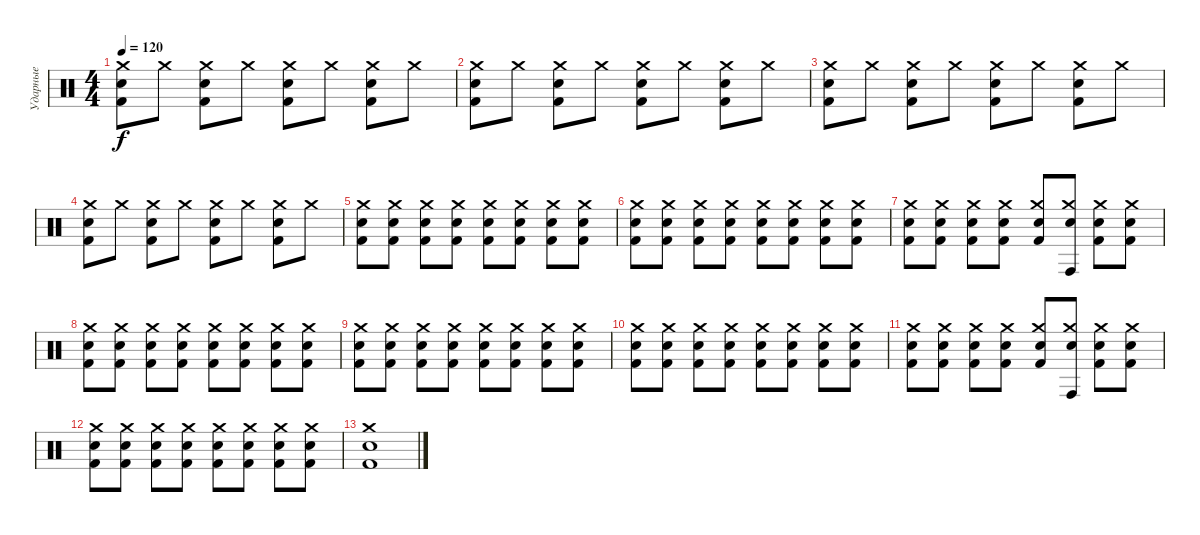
\track ("Ударные" "Ударные") {instrument percussion}
\staff {score}
\articulation defaults
\ts (4 4)
\tempo 120
\clef neutral
\ks c
("Kick (hit) 2" "Electric Snare (hit)" "Crash medium (hit)").8{dy f} "Crash medium (hit)".8 ("Kick (hit) 2" "Electric Snare (hit)" "Crash medium (hit)").8 "Crash medium (hit)".8 ("Kick (hit) 2" "Electric Snare (hit)" "Crash medium (hit)").8 "Crash medium (hit)".8 ("Kick (hit) 2" "Electric Snare (hit)" "Crash medium (hit)").8 "Crash medium (hit)".8 |
("Kick (hit) 2" "Electric Snare (hit)" "Crash medium (hit)").8 "Crash medium (hit)".8 ("Kick (hit) 2" "Electric Snare (hit)" "Crash medium (hit)").8 "Crash medium (hit)".8 ("Kick (hit) 2" "Electric Snare (hit)" "Crash medium (hit)").8 "Crash medium (hit)".8 ("Kick (hit) 2" "Electric Snare (hit)" "Crash medium (hit)").8 "Crash medium (hit)".8 |
("Kick (hit) 2" "Electric Snare (hit)" "Crash medium (hit)").8 "Crash medium (hit)".8 ("Kick (hit) 2" "Electric Snare (hit)" "Crash medium (hit)").8 "Crash medium (hit)".8 ("Kick (hit) 2" "Electric Snare (hit)" "Crash medium (hit)").8 "Crash medium (hit)".8 ("Kick (hit) 2" "Electric Snare (hit)" "Crash medium (hit)").8 "Crash medium (hit)".8 |
("Kick (hit) 2" "Electric Snare (hit)" "Crash medium (hit)").8 "Crash medium (hit)".8 ("Kick (hit) 2" "Electric Snare (hit)" "Crash medium (hit)").8 "Crash medium (hit)".8 ("Kick (hit) 2" "Electric Snare (hit)" "Crash medium (hit)").8 "Crash medium (hit)".8 ("Kick (hit) 2" "Electric Snare (hit)" "Crash medium (hit)").8 "Crash medium (hit)".8 |
("Kick (hit) 2" "Electric Snare (hit)" "Crash medium (hit)").8 ("Kick (hit) 2" "Electric Snare (hit)" "Crash medium (hit)").8 ("Kick (hit) 2" "Electric Snare (hit)" "Crash medium (hit)").8 ("Kick (hit) 2" "Electric Snare (hit)" "Crash medium (hit)").8 ("Kick (hit) 2" "Electric Snare (hit)" "Crash medium (hit)").8 ("Kick (hit) 2" "Electric Snare (hit)" "Crash medium (hit)").8 ("Kick (hit) 2" "Electric Snare (hit)" "Crash medium (hit)").8 ("Kick (hit) 2" "Electric Snare (hit)" "Crash medium (hit)").8 |
("Kick (hit) 2" "Electric Snare (hit)" "Crash medium (hit)").8 ("Kick (hit) 2" "Electric Snare (hit)" "Crash medium (hit)").8 ("Kick (hit) 2" "Electric Snare (hit)" "Crash medium (hit)").8 ("Kick (hit) 2" "Electric Snare (hit)" "Crash medium (hit)").8 ("Kick (hit) 2" "Electric Snare (hit)" "Crash medium (hit)").8 ("Kick (hit) 2" "Electric Snare (hit)" "Crash medium (hit)").8 ("Kick (hit) 2" "Electric Snare (hit)" "Crash medium (hit)").8 ("Kick (hit) 2" "Electric Snare (hit)" "Crash medium (hit)").8 |
("Kick (hit) 2" "Electric Snare (hit)" "Crash medium (hit)").8 ("Kick (hit) 2" "Electric Snare (hit)" "Crash medium (hit)").8 ("Kick (hit) 2" "Electric Snare (hit)" "Crash medium (hit)").8 ("Kick (hit) 2" "Electric Snare (hit)" "Crash medium (hit)").8 ("Kick (hit) 2" "Electric Snare (hit)" "Crash medium (hit)").8 ("Conga high (hit)" "Electric Snare (hit)" "Crash medium (hit)").8 ("Kick (hit) 2" "Electric Snare (hit)" "Crash medium (hit)").8 ("Kick (hit) 2" "Electric Snare (hit)" "Crash medium (hit)").8 |
("Kick (hit) 2" "Electric Snare (hit)" "Crash medium (hit)").8 ("Kick (hit) 2" "Electric Snare (hit)" "Crash medium (hit)").8 ("Kick (hit) 2" "Electric Snare (hit)" "Crash medium (hit)").8 ("Kick (hit) 2" "Electric Snare (hit)" "Crash medium (hit)").8 ("Kick (hit) 2" "Electric Snare (hit)" "Crash medium (hit)").8 ("Kick (hit) 2" "Electric Snare (hit)" "Crash medium (hit)").8 ("Kick (hit) 2" "Electric Snare (hit)" "Crash medium (hit)").8 ("Kick (hit) 2" "Electric Snare (hit)" "Crash medium (hit)").8 |
("Kick (hit) 2" "Electric Snare (hit)" "Crash medium (hit)").8 ("Kick (hit) 2" "Electric Snare (hit)" "Crash medium (hit)").8 ("Kick (hit) 2" "Electric Snare (hit)" "Crash medium (hit)").8 ("Kick (hit) 2" "Electric Snare (hit)" "Crash medium (hit)").8 ("Kick (hit) 2" "Electric Snare (hit)" "Crash medium (hit)").8 ("Kick (hit) 2" "Electric Snare (hit)" "Crash medium (hit)").8 ("Kick (hit) 2" "Electric Snare (hit)" "Crash medium (hit)").8 ("Kick (hit) 2" "Electric Snare (hit)" "Crash medium (hit)").8 |
("Kick (hit) 2" "Electric Snare (hit)" "Crash medium (hit)").8 ("Kick (hit) 2" "Electric Snare (hit)" "Crash medium (hit)").8 ("Kick (hit) 2" "Electric Snare (hit)" "Crash medium (hit)").8 ("Kick (hit) 2" "Electric Snare (hit)" "Crash medium (hit)").8 ("Kick (hit) 2" "Electric Snare (hit)" "Crash medium (hit)").8 ("Kick (hit) 2" "Electric Snare (hit)" "Crash medium (hit)").8 ("Kick (hit) 2" "Electric Snare (hit)" "Crash medium (hit)").8 ("Kick (hit) 2" "Electric Snare (hit)" "Crash medium (hit)").8 |
("Kick (hit) 2" "Electric Snare (hit)" "Crash medium (hit)").8 ("Kick (hit) 2" "Electric Snare (hit)" "Crash medium (hit)").8 ("Kick (hit) 2" "Electric Snare (hit)" "Crash medium (hit)").8 ("Kick (hit) 2" "Electric Snare (hit)" "Crash medium (hit)").8 ("Kick (hit) 2" "Electric Snare (hit)" "Crash medium (hit)").8 ("Conga high (hit)" "Electric Snare (hit)" "Crash medium (hit)").8 ("Kick (hit) 2" "Electric Snare (hit)" "Crash medium (hit)").8 ("Kick (hit) 2" "Electric Snare (hit)" "Crash medium (hit)").8 |
("Kick (hit) 2" "Electric Snare (hit)" "Crash medium (hit)").8 ("Kick (hit) 2" "Electric Snare (hit)" "Crash medium (hit)").8 ("Kick (hit) 2" "Electric Snare (hit)" "Crash medium (hit)").8 ("Kick (hit) 2" "Electric Snare (hit)" "Crash medium (hit)").8 ("Kick (hit) 2" "Electric Snare (hit)" "Crash medium (hit)").8 ("Kick (hit) 2" "Electric Snare (hit)" "Crash medium (hit)").8 ("Kick (hit) 2" "Electric Snare (hit)" "Crash medium (hit)").8 ("Kick (hit) 2" "Electric Snare (hit)" "Crash medium (hit)").8 |
("Kick (hit) 2" "Electric Snare (hit)" "Crash medium (hit)").1
